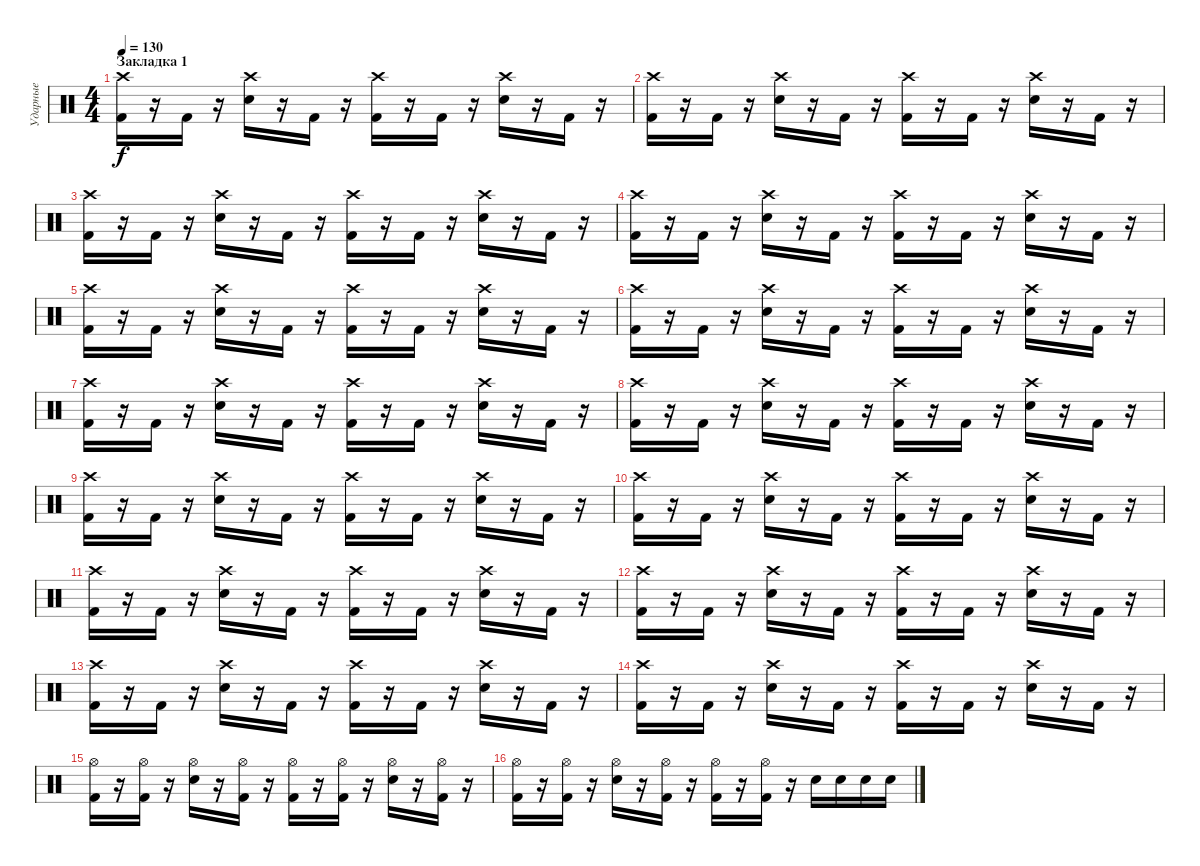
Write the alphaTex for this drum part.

\track ("Ударные" "Ударные") {instrument percussion}
\staff {score}
\articulation defaults
\ts (4 4)
\section ("" "Закладка 1")
\tempo 130
\clef neutral
\ks c
("Crash high (hit)" "Kick (hit) 2").16{dy f} r.16 "Kick (hit) 2".16 r.16 ("Crash high (hit)" "Electric Snare (hit)").16 r.16 "Kick (hit) 2".16 r.16 ("Crash high (hit)" "Kick (hit) 2").16 r.16 "Kick (hit) 2".16 r.16 ("Crash high (hit)" "Electric Snare (hit)").16 r.16 "Kick (hit) 2".16 r.16 |
("Crash high (hit)" "Kick (hit) 2").16 r.16 "Kick (hit) 2".16 r.16 ("Crash high (hit)" "Electric Snare (hit)").16 r.16 "Kick (hit) 2".16 r.16 ("Crash high (hit)" "Kick (hit) 2").16 r.16 "Kick (hit) 2".16 r.16 ("Crash high (hit)" "Electric Snare (hit)").16 r.16 "Kick (hit) 2".16 r.16 |
("Crash high (hit)" "Kick (hit) 2").16 r.16 "Kick (hit) 2".16 r.16 ("Crash high (hit)" "Electric Snare (hit)").16 r.16 "Kick (hit) 2".16 r.16 ("Crash high (hit)" "Kick (hit) 2").16 r.16 "Kick (hit) 2".16 r.16 ("Crash high (hit)" "Electric Snare (hit)").16 r.16 "Kick (hit) 2".16 r.16 |
("Crash high (hit)" "Kick (hit) 2").16 r.16 "Kick (hit) 2".16 r.16 ("Crash high (hit)" "Electric Snare (hit)").16 r.16 "Kick (hit) 2".16 r.16 ("Crash high (hit)" "Kick (hit) 2").16 r.16 "Kick (hit) 2".16 r.16 ("Crash high (hit)" "Electric Snare (hit)").16 r.16 "Kick (hit) 2".16 r.16 |
("Crash high (hit)" "Kick (hit) 2").16 r.16 "Kick (hit) 2".16 r.16 ("Crash high (hit)" "Electric Snare (hit)").16 r.16 "Kick (hit) 2".16 r.16 ("Crash high (hit)" "Kick (hit) 2").16 r.16 "Kick (hit) 2".16 r.16 ("Crash high (hit)" "Electric Snare (hit)").16 r.16 "Kick (hit) 2".16 r.16 |
("Crash high (hit)" "Kick (hit) 2").16 r.16 "Kick (hit) 2".16 r.16 ("Crash high (hit)" "Electric Snare (hit)").16 r.16 "Kick (hit) 2".16 r.16 ("Crash high (hit)" "Kick (hit) 2").16 r.16 "Kick (hit) 2".16 r.16 ("Crash high (hit)" "Electric Snare (hit)").16 r.16 "Kick (hit) 2".16 r.16 |
("Crash high (hit)" "Kick (hit) 2").16 r.16 "Kick (hit) 2".16 r.16 ("Crash high (hit)" "Electric Snare (hit)").16 r.16 "Kick (hit) 2".16 r.16 ("Crash high (hit)" "Kick (hit) 2").16 r.16 "Kick (hit) 2".16 r.16 ("Crash high (hit)" "Electric Snare (hit)").16 r.16 "Kick (hit) 2".16 r.16 |
("Crash high (hit)" "Kick (hit) 2").16 r.16 "Kick (hit) 2".16 r.16 ("Crash high (hit)" "Electric Snare (hit)").16 r.16 "Kick (hit) 2".16 r.16 ("Crash high (hit)" "Kick (hit) 2").16 r.16 "Kick (hit) 2".16 r.16 ("Crash high (hit)" "Electric Snare (hit)").16 r.16 "Kick (hit) 2".16 r.16 |
("Crash high (hit)" "Kick (hit) 2").16 r.16 "Kick (hit) 2".16 r.16 ("Crash high (hit)" "Electric Snare (hit)").16 r.16 "Kick (hit) 2".16 r.16 ("Crash high (hit)" "Kick (hit) 2").16 r.16 "Kick (hit) 2".16 r.16 ("Crash high (hit)" "Electric Snare (hit)").16 r.16 "Kick (hit) 2".16 r.16 |
("Crash high (hit)" "Kick (hit) 2").16 r.16 "Kick (hit) 2".16 r.16 ("Crash high (hit)" "Electric Snare (hit)").16 r.16 "Kick (hit) 2".16 r.16 ("Crash high (hit)" "Kick (hit) 2").16 r.16 "Kick (hit) 2".16 r.16 ("Crash high (hit)" "Electric Snare (hit)").16 r.16 "Kick (hit) 2".16 r.16 |
("Crash high (hit)" "Kick (hit) 2").16 r.16 "Kick (hit) 2".16 r.16 ("Crash high (hit)" "Electric Snare (hit)").16 r.16 "Kick (hit) 2".16 r.16 ("Crash high (hit)" "Kick (hit) 2").16 r.16 "Kick (hit) 2".16 r.16 ("Crash high (hit)" "Electric Snare (hit)").16 r.16 "Kick (hit) 2".16 r.16 |
("Crash high (hit)" "Kick (hit) 2").16 r.16 "Kick (hit) 2".16 r.16 ("Crash high (hit)" "Electric Snare (hit)").16 r.16 "Kick (hit) 2".16 r.16 ("Crash high (hit)" "Kick (hit) 2").16 r.16 "Kick (hit) 2".16 r.16 ("Crash high (hit)" "Electric Snare (hit)").16 r.16 "Kick (hit) 2".16 r.16 |
("Crash high (hit)" "Kick (hit) 2").16 r.16 "Kick (hit) 2".16 r.16 ("Crash high (hit)" "Electric Snare (hit)").16 r.16 "Kick (hit) 2".16 r.16 ("Crash high (hit)" "Kick (hit) 2").16 r.16 "Kick (hit) 2".16 r.16 ("Crash high (hit)" "Electric Snare (hit)").16 r.16 "Kick (hit) 2".16 r.16 |
("Crash high (hit)" "Kick (hit) 2").16 r.16 "Kick (hit) 2".16 r.16 ("Crash high (hit)" "Electric Snare (hit)").16 r.16 "Kick (hit) 2".16 r.16 ("Crash high (hit)" "Kick (hit) 2").16 r.16 "Kick (hit) 2".16 r.16 ("Crash high (hit)" "Electric Snare (hit)").16 r.16 "Kick (hit) 2".16 r.16 |
("Hi-Hat (open)" "Kick (hit) 2").16 r.16 ("Hi-Hat (open)" "Kick (hit) 2").16 r.16 ("Hi-Hat (open)" "Electric Snare (hit)").16 r.16 ("Hi-Hat (open)" "Kick (hit) 2").16 r.16 ("Hi-Hat (open)" "Kick (hit) 2").16 r.16 ("Hi-Hat (open)" "Kick (hit) 2").16 r.16 ("Hi-Hat (open)" "Electric Snare (hit)").16 r.16 ("Hi-Hat (open)" "Kick (hit) 2").16 r.16 |
("Hi-Hat (open)" "Kick (hit) 2").16 r.16 ("Hi-Hat (open)" "Kick (hit) 2").16 r.16 ("Hi-Hat (open)" "Electric Snare (hit)").16 r.16 ("Hi-Hat (open)" "Kick (hit) 2").16 r.16 ("Hi-Hat (open)" "Kick (hit) 2").16 r.16 ("Hi-Hat (open)" "Kick (hit) 2").16 r.16 "Electric Snare (hit)".16 "Electric Snare (hit)".16 "Electric Snare (hit)".16 "Electric Snare (hit)".16
